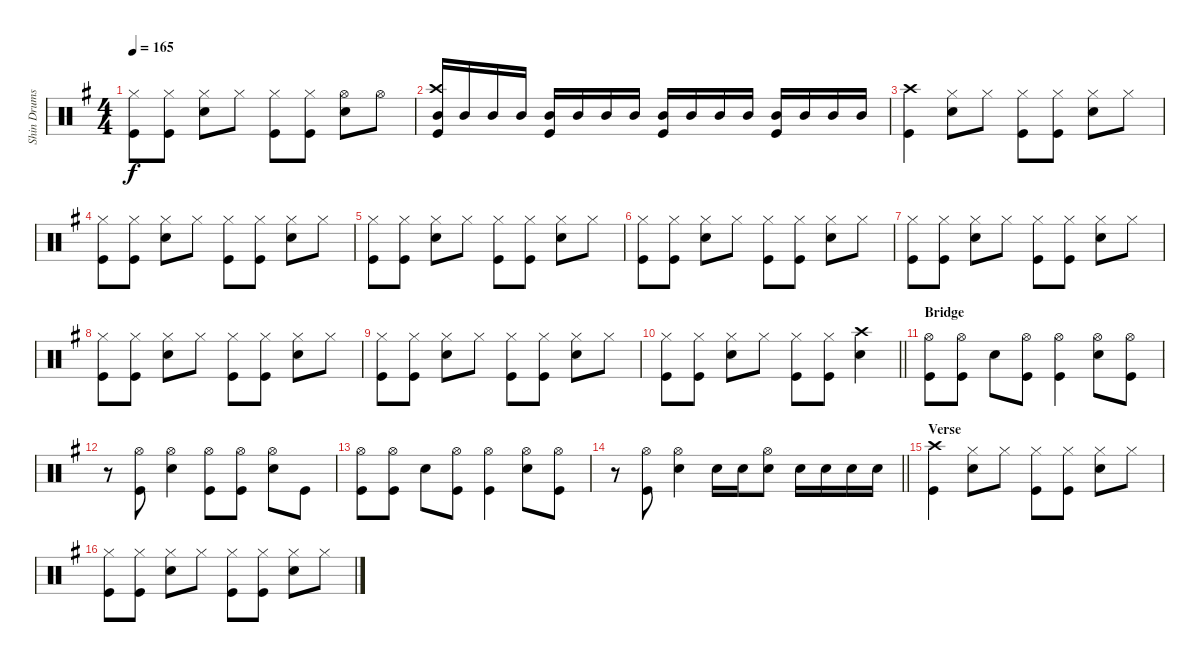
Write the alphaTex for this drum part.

\track ("Shin Drums" "Shin Drums") {instrument percussion}
\staff {score}
\articulation defaults
\ts (4 4)
\tempo 165
\clef neutral
\ks g
("Hi-Hat (closed)" "Kick (hit)").8{dy f} ("Hi-Hat (closed)" "Kick (hit)").8 ("Hi-Hat (closed)" "Snare (hit) 2").8 "Hi-Hat (closed)".8 ("Hi-Hat (closed)" "Kick (hit)").8 ("Hi-Hat (closed)" "Kick (hit)").8 ("Hi-Hat (open)" "Snare (hit) 2").8 "Hi-Hat (open)".8 |
("Crash high (hit)" "Mid Tom (hit)" "Kick (hit)").16 "Mid Tom (hit)".16 "Mid Tom (hit)".16 "Mid Tom (hit)".16 ("Mid Tom (hit)" "Kick (hit)").16 "Mid Tom (hit)".16 "Mid Tom (hit)".16 "Mid Tom (hit)".16 ("Mid Tom (hit)" "Kick (hit)").16 "Mid Tom (hit)".16 "Mid Tom (hit)".16 "Mid Tom (hit)".16 ("Mid Tom (hit)" "Kick (hit)").16 "Mid Tom (hit)".16 "Mid Tom (hit)".16 "Mid Tom (hit)".16 |
("Crash high (hit)" "Kick (hit)").4 ("Hi-Hat (closed)" "Snare (hit) 2").8 "Hi-Hat (closed)".8 ("Hi-Hat (closed)" "Kick (hit)").8 ("Hi-Hat (closed)" "Kick (hit)").8 ("Hi-Hat (closed)" "Snare (hit) 2").8 "Hi-Hat (closed)".8 |
("Hi-Hat (closed)" "Kick (hit)").8 ("Hi-Hat (closed)" "Kick (hit)").8 ("Hi-Hat (closed)" "Snare (hit) 2").8 "Hi-Hat (closed)".8 ("Hi-Hat (closed)" "Kick (hit)").8 ("Hi-Hat (closed)" "Kick (hit)").8 ("Hi-Hat (closed)" "Snare (hit) 2").8 "Hi-Hat (closed)".8 |
("Hi-Hat (closed)" "Kick (hit)").8 ("Hi-Hat (closed)" "Kick (hit)").8 ("Hi-Hat (closed)" "Snare (hit) 2").8 "Hi-Hat (closed)".8 ("Hi-Hat (closed)" "Kick (hit)").8 ("Hi-Hat (closed)" "Kick (hit)").8 ("Hi-Hat (closed)" "Snare (hit) 2").8 "Hi-Hat (closed)".8 |
("Hi-Hat (closed)" "Kick (hit)").8 ("Hi-Hat (closed)" "Kick (hit)").8 ("Hi-Hat (closed)" "Snare (hit) 2").8 "Hi-Hat (closed)".8 ("Hi-Hat (closed)" "Kick (hit)").8 ("Hi-Hat (closed)" "Kick (hit)").8 ("Hi-Hat (closed)" "Snare (hit) 2").8 "Hi-Hat (closed)".8 |
("Hi-Hat (closed)" "Kick (hit)").8 ("Hi-Hat (closed)" "Kick (hit)").8 ("Hi-Hat (closed)" "Snare (hit) 2").8 "Hi-Hat (closed)".8 ("Hi-Hat (closed)" "Kick (hit)").8 ("Hi-Hat (closed)" "Kick (hit)").8 ("Hi-Hat (closed)" "Snare (hit) 2").8 "Hi-Hat (closed)".8 |
("Hi-Hat (closed)" "Kick (hit)").8 ("Hi-Hat (closed)" "Kick (hit)").8 ("Hi-Hat (closed)" "Snare (hit) 2").8 "Hi-Hat (closed)".8 ("Hi-Hat (closed)" "Kick (hit)").8 ("Hi-Hat (closed)" "Kick (hit)").8 ("Hi-Hat (closed)" "Snare (hit) 2").8 "Hi-Hat (closed)".8 |
("Hi-Hat (closed)" "Kick (hit)").8 ("Hi-Hat (closed)" "Kick (hit)").8 ("Hi-Hat (closed)" "Snare (hit) 2").8 "Hi-Hat (closed)".8 ("Hi-Hat (closed)" "Kick (hit)").8 ("Hi-Hat (closed)" "Kick (hit)").8 ("Hi-Hat (closed)" "Snare (hit) 2").8 "Hi-Hat (closed)".8 |
\barLineRight lightlight
("Hi-Hat (closed)" "Kick (hit)").8 ("Hi-Hat (closed)" "Kick (hit)").8 ("Hi-Hat (closed)" "Snare (hit) 2").8 "Hi-Hat (closed)".8 ("Hi-Hat (closed)" "Kick (hit)").8 ("Hi-Hat (closed)" "Kick (hit)").8 ("Crash high (hit)" "Snare (hit) 2").4 |
\section ("" "Bridge")
("Hi-Hat (open)" "Kick (hit)").8 ("Hi-Hat (open)" "Kick (hit)").8 "Snare (hit) 2".8 ("Hi-Hat (open)" "Kick (hit)").8 ("Hi-Hat (open)" "Kick (hit)").4 ("Hi-Hat (open)" "Snare (hit) 2").8 ("Hi-Hat (open)" "Kick (hit)").8 |
r.8 ("Hi-Hat (open)" "Kick (hit)").8 ("Hi-Hat (open)" "Snare (hit) 2").4 ("Hi-Hat (open)" "Kick (hit)").8 ("Hi-Hat (open)" "Kick (hit)").8 ("Hi-Hat (open)" "Snare (hit) 2").8 "Kick (hit)".8 |
("Hi-Hat (open)" "Kick (hit)").8 ("Hi-Hat (open)" "Kick (hit)").8 "Snare (hit) 2".8 ("Hi-Hat (open)" "Kick (hit)").8 ("Hi-Hat (open)" "Kick (hit)").4 ("Hi-Hat (open)" "Snare (hit) 2").8 ("Hi-Hat (open)" "Kick (hit)").8 |
\barLineRight lightlight
r.8 ("Hi-Hat (open)" "Kick (hit)").8 ("Hi-Hat (open)" "Snare (hit) 2").4 "Snare (hit) 2".16 "Snare (hit) 2".16 ("Hi-Hat (open)" "Snare (hit) 2").8 "Snare (hit) 2".16 "Snare (hit) 2".16 "Snare (hit) 2".16 "Snare (hit) 2".16 |
\section ("" "Verse")
\ks g
("Crash high (hit)" "Kick (hit)").4 ("Hi-Hat (closed)" "Snare (hit) 2").8 "Hi-Hat (closed)".8 ("Hi-Hat (closed)" "Kick (hit)").8 ("Hi-Hat (closed)" "Kick (hit)").8 ("Hi-Hat (closed)" "Snare (hit) 2").8 "Hi-Hat (closed)".8 |
\ks g
("Hi-Hat (closed)" "Kick (hit)").8 ("Hi-Hat (closed)" "Kick (hit)").8 ("Hi-Hat (closed)" "Snare (hit) 2").8 "Hi-Hat (closed)".8 ("Hi-Hat (closed)" "Kick (hit)").8 ("Hi-Hat (closed)" "Kick (hit)").8 ("Hi-Hat (closed)" "Snare (hit) 2").8 "Hi-Hat (closed)".8
